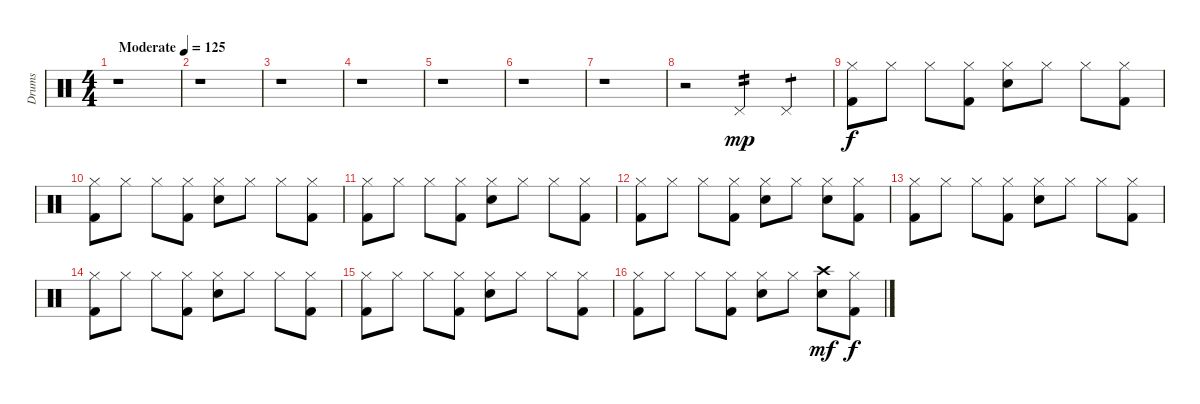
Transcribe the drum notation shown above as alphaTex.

\track ("Drums" "Drums") {instrument percussion}
\staff {score}
\articulation defaults
\ts (4 4)
\tempo (125 "Moderate")
\clef neutral
\ks c
r.1{dy mp} |
r.1 |
r.1 |
r.1 |
r.1 |
r.1 |
r.1 |
r.2 "Pedal Hi-Hat (hit)".4{tp 2} "Pedal Hi-Hat (hit)".4{tp 1} |
("Hi-Hat (closed)" "Kick (hit) 2").8{dy f} "Hi-Hat (closed)".8 "Hi-Hat (closed)".8 ("Hi-Hat (closed)" "Kick (hit) 2").8 ("Hi-Hat (closed)" "Snare (hit) 2").8 "Hi-Hat (closed)".8 "Hi-Hat (closed)".8 ("Hi-Hat (closed)" "Kick (hit) 2").8 |
("Hi-Hat (closed)" "Kick (hit) 2").8 "Hi-Hat (closed)".8 "Hi-Hat (closed)".8 ("Hi-Hat (closed)" "Kick (hit) 2").8 ("Hi-Hat (closed)" "Snare (hit) 2").8 "Hi-Hat (closed)".8 "Hi-Hat (closed)".8 ("Hi-Hat (closed)" "Kick (hit) 2").8 |
("Hi-Hat (closed)" "Kick (hit) 2").8 "Hi-Hat (closed)".8 "Hi-Hat (closed)".8 ("Hi-Hat (closed)" "Kick (hit) 2").8 ("Hi-Hat (closed)" "Snare (hit) 2").8 "Hi-Hat (closed)".8 "Hi-Hat (closed)".8 ("Hi-Hat (closed)" "Kick (hit) 2").8 |
("Hi-Hat (closed)" "Kick (hit) 2").8 "Hi-Hat (closed)".8 "Hi-Hat (closed)".8 ("Hi-Hat (closed)" "Kick (hit) 2").8 ("Hi-Hat (closed)" "Snare (hit) 2").8 "Hi-Hat (closed)".8 ("Hi-Hat (closed)" "Snare (hit) 2").8 ("Hi-Hat (closed)" "Kick (hit) 2").8 |
("Hi-Hat (closed)" "Kick (hit) 2").8 "Hi-Hat (closed)".8 "Hi-Hat (closed)".8 ("Hi-Hat (closed)" "Kick (hit) 2").8 ("Hi-Hat (closed)" "Snare (hit) 2").8 "Hi-Hat (closed)".8 "Hi-Hat (closed)".8 ("Hi-Hat (closed)" "Kick (hit) 2").8 |
("Hi-Hat (closed)" "Kick (hit) 2").8 "Hi-Hat (closed)".8 "Hi-Hat (closed)".8 ("Hi-Hat (closed)" "Kick (hit) 2").8 ("Hi-Hat (closed)" "Snare (hit) 2").8 "Hi-Hat (closed)".8 "Hi-Hat (closed)".8 ("Hi-Hat (closed)" "Kick (hit) 2").8 |
("Hi-Hat (closed)" "Kick (hit) 2").8 "Hi-Hat (closed)".8 "Hi-Hat (closed)".8 ("Hi-Hat (closed)" "Kick (hit) 2").8 ("Hi-Hat (closed)" "Snare (hit) 2").8 "Hi-Hat (closed)".8 "Hi-Hat (closed)".8 ("Hi-Hat (closed)" "Kick (hit) 2").8 |
("Hi-Hat (closed)" "Kick (hit) 2").8 "Hi-Hat (closed)".8 "Hi-Hat (closed)".8 ("Hi-Hat (closed)" "Kick (hit) 2").8 ("Hi-Hat (closed)" "Snare (hit) 2").8 "Hi-Hat (closed)".8 ("Crash high (hit)" "Snare (hit) 2").8{dy mf} ("Hi-Hat (closed)" "Kick (hit) 2").8{dy f}
